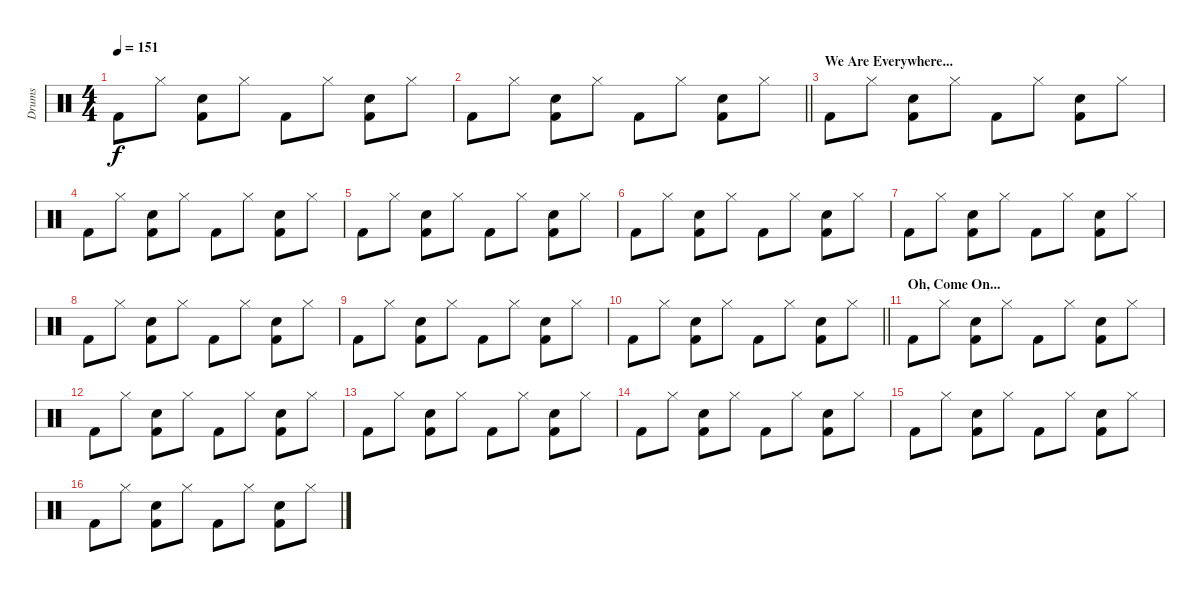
\track ("Drums" "Drums") {instrument percussion}
\staff {score}
\articulation defaults
\ts (4 4)
\tempo 151
\clef neutral
\ks c "Kick (hit) 2".8{dy f} "Hi-Hat (closed)".8
("Electric Snare (hit)" "Kick (hit) 2").8 "Hi-Hat (closed)".8 "Kick (hit) 2".8 "Hi-Hat (closed)".8 ("Electric Snare (hit)" "Kick (hit) 2").8 "Hi-Hat (closed)".8 |
\barLineRight lightlight "Kick (hit) 2".8 "Hi-Hat (closed)".8
("Electric Snare (hit)" "Kick (hit) 2").8 "Hi-Hat (closed)".8 "Kick (hit) 2".8 "Hi-Hat (closed)".8 ("Electric Snare (hit)" "Kick (hit) 2").8 "Hi-Hat (closed)".8 |
\section ("" "We Are Everywhere...")
"Kick (hit) 2".8 "Hi-Hat (closed)".8 ("Electric Snare (hit)" "Kick (hit) 2").8 "Hi-Hat (closed)".8 "Kick (hit) 2".8 "Hi-Hat (closed)".8 ("Electric Snare (hit)" "Kick (hit) 2").8 "Hi-Hat (closed)".8 |
"Kick (hit) 2".8 "Hi-Hat (closed)".8 ("Electric Snare (hit)" "Kick (hit) 2").8 "Hi-Hat (closed)".8 "Kick (hit) 2".8 "Hi-Hat (closed)".8 ("Electric Snare (hit)" "Kick (hit) 2").8 "Hi-Hat (closed)".8 |
"Kick (hit) 2".8 "Hi-Hat (closed)".8 ("Electric Snare (hit)" "Kick (hit) 2").8 "Hi-Hat (closed)".8 "Kick (hit) 2".8 "Hi-Hat (closed)".8 ("Electric Snare (hit)" "Kick (hit) 2").8 "Hi-Hat (closed)".8 |
"Kick (hit) 2".8 "Hi-Hat (closed)".8 ("Electric Snare (hit)" "Kick (hit) 2").8 "Hi-Hat (closed)".8 "Kick (hit) 2".8 "Hi-Hat (closed)".8 ("Electric Snare (hit)" "Kick (hit) 2").8 "Hi-Hat (closed)".8 |
"Kick (hit) 2".8 "Hi-Hat (closed)".8 ("Electric Snare (hit)" "Kick (hit) 2").8 "Hi-Hat (closed)".8 "Kick (hit) 2".8 "Hi-Hat (closed)".8 ("Electric Snare (hit)" "Kick (hit) 2").8 "Hi-Hat (closed)".8 |
"Kick (hit) 2".8 "Hi-Hat (closed)".8 ("Electric Snare (hit)" "Kick (hit) 2").8 "Hi-Hat (closed)".8 "Kick (hit) 2".8 "Hi-Hat (closed)".8 ("Electric Snare (hit)" "Kick (hit) 2").8 "Hi-Hat (closed)".8 |
"Kick (hit) 2".8 "Hi-Hat (closed)".8 ("Electric Snare (hit)" "Kick (hit) 2").8 "Hi-Hat (closed)".8 "Kick (hit) 2".8 "Hi-Hat (closed)".8 ("Electric Snare (hit)" "Kick (hit) 2").8 "Hi-Hat (closed)".8 |
\barLineRight lightlight "Kick (hit) 2".8 "Hi-Hat (closed)".8
("Electric Snare (hit)" "Kick (hit) 2").8 "Hi-Hat (closed)".8 "Kick (hit) 2".8 "Hi-Hat (closed)".8 ("Electric Snare (hit)" "Kick (hit) 2").8 "Hi-Hat (closed)".8 |
\section ("" "Oh, Come On...")
"Kick (hit) 2".8 "Hi-Hat (closed)".8 ("Electric Snare (hit)" "Kick (hit) 2").8 "Hi-Hat (closed)".8 "Kick (hit) 2".8 "Hi-Hat (closed)".8 ("Electric Snare (hit)" "Kick (hit) 2").8 "Hi-Hat (closed)".8 |
"Kick (hit) 2".8 "Hi-Hat (closed)".8 ("Electric Snare (hit)" "Kick (hit) 2").8 "Hi-Hat (closed)".8 "Kick (hit) 2".8 "Hi-Hat (closed)".8 ("Electric Snare (hit)" "Kick (hit) 2").8 "Hi-Hat (closed)".8 |
"Kick (hit) 2".8 "Hi-Hat (closed)".8 ("Electric Snare (hit)" "Kick (hit) 2").8 "Hi-Hat (closed)".8 "Kick (hit) 2".8 "Hi-Hat (closed)".8 ("Electric Snare (hit)" "Kick (hit) 2").8 "Hi-Hat (closed)".8 |
"Kick (hit) 2".8 "Hi-Hat (closed)".8 ("Electric Snare (hit)" "Kick (hit) 2").8 "Hi-Hat (closed)".8 "Kick (hit) 2".8 "Hi-Hat (closed)".8 ("Electric Snare (hit)" "Kick (hit) 2").8 "Hi-Hat (closed)".8 |
"Kick (hit) 2".8 "Hi-Hat (closed)".8 ("Electric Snare (hit)" "Kick (hit) 2").8 "Hi-Hat (closed)".8 "Kick (hit) 2".8 "Hi-Hat (closed)".8 ("Electric Snare (hit)" "Kick (hit) 2").8 "Hi-Hat (closed)".8 |
"Kick (hit) 2".8 "Hi-Hat (closed)".8 ("Electric Snare (hit)" "Kick (hit) 2").8 "Hi-Hat (closed)".8 "Kick (hit) 2".8 "Hi-Hat (closed)".8 ("Electric Snare (hit)" "Kick (hit) 2").8 "Hi-Hat (closed)".8
